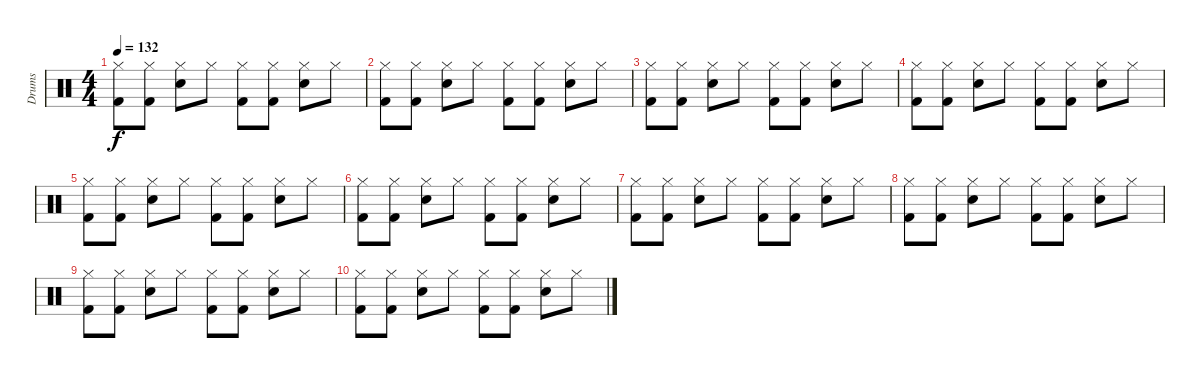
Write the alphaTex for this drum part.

\track ("Drums" "Drums") {instrument percussion}
\staff {score}
\articulation defaults
\ts (4 4)
\tempo 132
\clef neutral
\ks c
("Kick (hit) 2" "Hi-Hat (closed)").8{dy f} ("Kick (hit) 2" "Hi-Hat (closed)").8 ("Snare (hit) 2" "Hi-Hat (closed)").8 "Hi-Hat (closed)".8 ("Kick (hit) 2" "Hi-Hat (closed)").8 ("Kick (hit) 2" "Hi-Hat (closed)").8 ("Snare (hit) 2" "Hi-Hat (closed)").8 "Hi-Hat (closed)".8 |
("Kick (hit) 2" "Hi-Hat (closed)").8 ("Kick (hit) 2" "Hi-Hat (closed)").8 ("Snare (hit) 2" "Hi-Hat (closed)").8 "Hi-Hat (closed)".8 ("Kick (hit) 2" "Hi-Hat (closed)").8 ("Kick (hit) 2" "Hi-Hat (closed)").8 ("Snare (hit) 2" "Hi-Hat (closed)").8 "Hi-Hat (closed)".8 |
("Kick (hit) 2" "Hi-Hat (closed)").8 ("Kick (hit) 2" "Hi-Hat (closed)").8 ("Snare (hit) 2" "Hi-Hat (closed)").8 "Hi-Hat (closed)".8 ("Kick (hit) 2" "Hi-Hat (closed)").8 ("Kick (hit) 2" "Hi-Hat (closed)").8 ("Snare (hit) 2" "Hi-Hat (closed)").8 "Hi-Hat (closed)".8 |
("Kick (hit) 2" "Hi-Hat (closed)").8 ("Kick (hit) 2" "Hi-Hat (closed)").8 ("Snare (hit) 2" "Hi-Hat (closed)").8 "Hi-Hat (closed)".8 ("Kick (hit) 2" "Hi-Hat (closed)").8 ("Kick (hit) 2" "Hi-Hat (closed)").8 ("Snare (hit) 2" "Hi-Hat (closed)").8 "Hi-Hat (closed)".8 |
("Kick (hit) 2" "Hi-Hat (closed)").8 ("Kick (hit) 2" "Hi-Hat (closed)").8 ("Snare (hit) 2" "Hi-Hat (closed)").8 "Hi-Hat (closed)".8 ("Kick (hit) 2" "Hi-Hat (closed)").8 ("Kick (hit) 2" "Hi-Hat (closed)").8 ("Snare (hit) 2" "Hi-Hat (closed)").8 "Hi-Hat (closed)".8 |
("Kick (hit) 2" "Hi-Hat (closed)").8 ("Kick (hit) 2" "Hi-Hat (closed)").8 ("Snare (hit) 2" "Hi-Hat (closed)").8 "Hi-Hat (closed)".8 ("Kick (hit) 2" "Hi-Hat (closed)").8 ("Kick (hit) 2" "Hi-Hat (closed)").8 ("Snare (hit) 2" "Hi-Hat (closed)").8 "Hi-Hat (closed)".8 |
("Kick (hit) 2" "Hi-Hat (closed)").8{volume 6} ("Kick (hit) 2" "Hi-Hat (closed)").8 ("Snare (hit) 2" "Hi-Hat (closed)").8 "Hi-Hat (closed)".8 ("Kick (hit) 2" "Hi-Hat (closed)").8 ("Kick (hit) 2" "Hi-Hat (closed)").8 ("Snare (hit) 2" "Hi-Hat (closed)").8 "Hi-Hat (closed)".8 |
("Kick (hit) 2" "Hi-Hat (closed)").8 ("Kick (hit) 2" "Hi-Hat (closed)").8 ("Snare (hit) 2" "Hi-Hat (closed)").8 "Hi-Hat (closed)".8 ("Kick (hit) 2" "Hi-Hat (closed)").8 ("Kick (hit) 2" "Hi-Hat (closed)").8 ("Snare (hit) 2" "Hi-Hat (closed)").8 "Hi-Hat (closed)".8 |
("Kick (hit) 2" "Hi-Hat (closed)").8{volume 0} ("Kick (hit) 2" "Hi-Hat (closed)").8 ("Snare (hit) 2" "Hi-Hat (closed)").8 "Hi-Hat (closed)".8 ("Kick (hit) 2" "Hi-Hat (closed)").8 ("Kick (hit) 2" "Hi-Hat (closed)").8 ("Snare (hit) 2" "Hi-Hat (closed)").8 "Hi-Hat (closed)".8 |
("Kick (hit) 2" "Hi-Hat (closed)").8 ("Kick (hit) 2" "Hi-Hat (closed)").8 ("Snare (hit) 2" "Hi-Hat (closed)").8 "Hi-Hat (closed)".8 ("Kick (hit) 2" "Hi-Hat (closed)").8 ("Kick (hit) 2" "Hi-Hat (closed)").8 ("Snare (hit) 2" "Hi-Hat (closed)").8 "Hi-Hat (closed)".8
